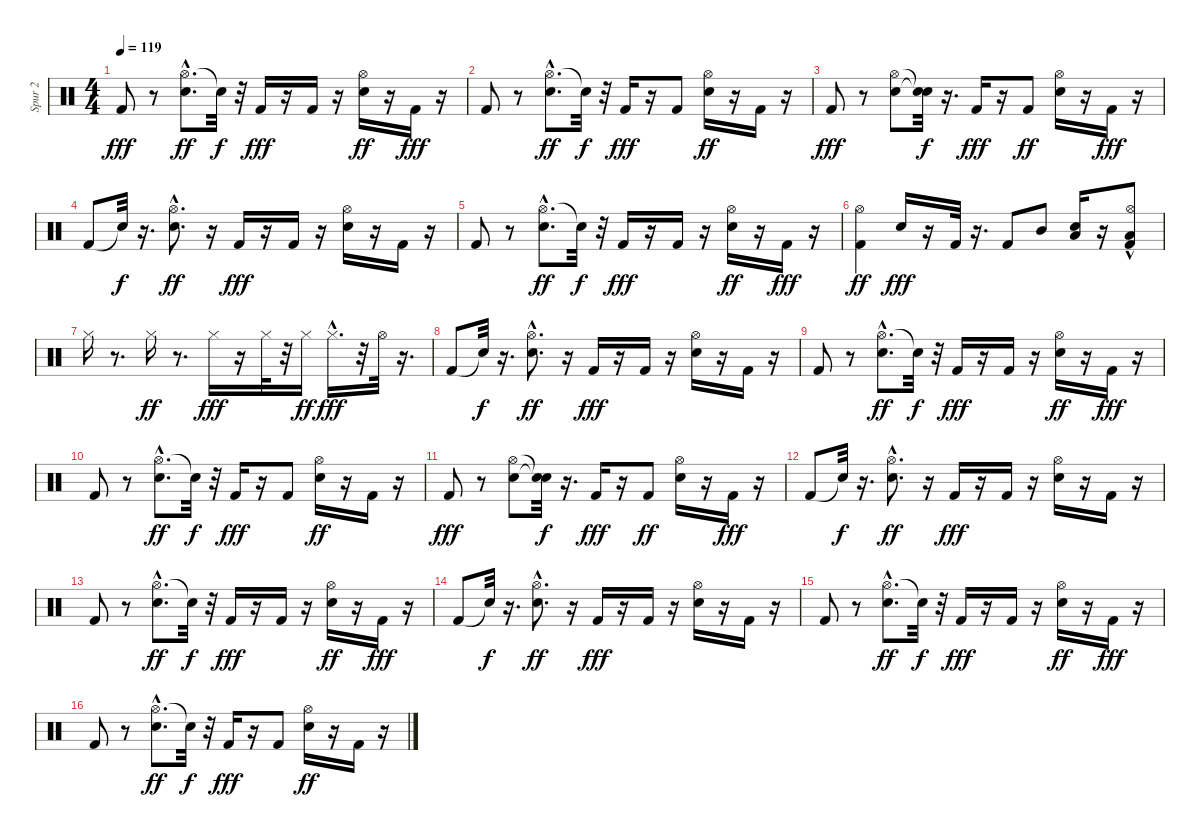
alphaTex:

\track ("Spur 2" "Spur 2") {instrument percussion}
\staff {score}
\articulation defaults
\ts (4 4)
\tempo 119
\clef neutral
\ks c "Kick (hit) 2".8{dy fff}
r.8 ("Hi-Hat (open)"{hac} "Electric Snare (hit)").8{d dy ff} "Snare (hit)"{t}.32{dy f} r.32 "Kick (hit) 2".16{dy fff} r.16 "Kick (hit) 2".16 r.16 ("Hi-Hat (open)" "Electric Snare (hit)").16{dy ff} r.16 "Kick (hit) 2".16{dy fff} r.16 |
"Kick (hit) 2".8 r.8 ("Hi-Hat (open)"{hac} "Electric Snare (hit)").8{d dy ff} "Snare (hit)"{t}.32{dy f} r.32 "Kick (hit) 2".16{dy fff} r.16 "Kick (hit) 2".8 ("Hi-Hat (open)" "Electric Snare (hit)").16{dy ff} r.16 "Kick (hit) 2".16 r.16 |
"Kick (hit) 2".8{dy fff} r.8 ("Hi-Hat (open)" "Electric Snare (hit)").8 ("Snare (hit)"{t} "Snare (hit)"{t}).32{dy f} r.16{d} "Kick (hit) 2".16{dy fff} r.16 "Kick (hit) 2".8{dy ff} ("Hi-Hat (open)" "Electric Snare (hit)").16 r.16 "Kick (hit) 2".16{dy fff} r.16 |
"Kick (hit) 2".8 "Snare (hit)"{t}.32{dy f} r.16{d} ("Hi-Hat (open)"{hac} "Electric Snare (hit)").8{d dy ff} r.16 "Kick (hit) 2".16{dy fff} r.16 "Kick (hit) 2".16 r.16 ("Hi-Hat (open)" "Electric Snare (hit)").16 r.16 "Kick (hit) 2".16 r.16 |
"Kick (hit) 2".8 r.8 ("Hi-Hat (open)"{hac} "Electric Snare (hit)").8{d dy ff} "Snare (hit)"{t}.32{dy f} r.32 "Kick (hit) 2".16{dy fff} r.16 "Kick (hit) 2".16 r.16 ("Hi-Hat (open)" "Electric Snare (hit)").16{dy ff} r.16 "Kick (hit) 2".16{dy fff} r.16 |
("Kick (hit) 2" "Hi-Hat (open)").4{dy ff} "Electric Snare (hit)".16{dy fff} r.16 "Kick (hit) 2".32 r.16{d} "Kick (hit) 2".8 "Mid Tom (hit)".8 ("Low Tom (hit)" "Electric Snare (hit)").16 r.16 ("Kick (hit) 2"{hac} "Hi-Hat (open)"{hac} "Low Tom (hit)").8 |
"Hi-Hat (closed)".16 r.8{d} "Hi-Hat (closed)".16{dy ff} r.8{d} "Hi-Hat (closed)".16{dy fff} r.16 "Hi-Hat (closed)".32 r.32 "Hi-Hat (closed)".16{dy ff} "Hi-Hat (closed)"{hac}.16{d dy fff} r.32 "Hi-Hat (open)".32 r.16{d} |
"Kick (hit) 2".8 "Snare (hit)"{t}.32{dy f} r.16{d} ("Hi-Hat (open)"{hac} "Electric Snare (hit)").8{d dy ff} r.16 "Kick (hit) 2".16{dy fff} r.16 "Kick (hit) 2".16 r.16 ("Hi-Hat (open)" "Electric Snare (hit)").16 r.16 "Kick (hit) 2".16 r.16 |
"Kick (hit) 2".8 r.8 ("Hi-Hat (open)"{hac} "Electric Snare (hit)").8{d dy ff} "Snare (hit)"{t}.32{dy f} r.32 "Kick (hit) 2".16{dy fff} r.16 "Kick (hit) 2".16 r.16 ("Hi-Hat (open)" "Electric Snare (hit)").16{dy ff} r.16 "Kick (hit) 2".16{dy fff} r.16 |
"Kick (hit) 2".8 r.8 ("Hi-Hat (open)"{hac} "Electric Snare (hit)").8{d dy ff} "Snare (hit)"{t}.32{dy f} r.32 "Kick (hit) 2".16{dy fff} r.16 "Kick (hit) 2".8 ("Hi-Hat (open)" "Electric Snare (hit)").16{dy ff} r.16 "Kick (hit) 2".16 r.16 |
"Kick (hit) 2".8{dy fff} r.8 ("Hi-Hat (open)" "Electric Snare (hit)").8 ("Snare (hit)"{t} "Snare (hit)"{t}).32{dy f} r.16{d} "Kick (hit) 2".16{dy fff} r.16 "Kick (hit) 2".8{dy ff} ("Hi-Hat (open)" "Electric Snare (hit)").16 r.16 "Kick (hit) 2".16{dy fff} r.16 |
"Kick (hit) 2".8 "Snare (hit)"{t}.32{dy f} r.16{d} ("Hi-Hat (open)"{hac} "Electric Snare (hit)").8{d dy ff} r.16 "Kick (hit) 2".16{dy fff} r.16 "Kick (hit) 2".16 r.16 ("Hi-Hat (open)" "Electric Snare (hit)").16 r.16 "Kick (hit) 2".16 r.16 |
"Kick (hit) 2".8 r.8 ("Hi-Hat (open)"{hac} "Electric Snare (hit)").8{d dy ff} "Snare (hit)"{t}.32{dy f} r.32 "Kick (hit) 2".16{dy fff} r.16 "Kick (hit) 2".16 r.16 ("Hi-Hat (open)" "Electric Snare (hit)").16{dy ff} r.16 "Kick (hit) 2".16{dy fff} r.16 |
"Kick (hit) 2".8 "Snare (hit)"{t}.32{dy f} r.16{d} ("Hi-Hat (open)"{hac} "Electric Snare (hit)").8{d dy ff} r.16 "Kick (hit) 2".16{dy fff} r.16 "Kick (hit) 2".16 r.16 ("Hi-Hat (open)" "Electric Snare (hit)").16 r.16 "Kick (hit) 2".16 r.16 |
"Kick (hit) 2".8 r.8 ("Hi-Hat (open)"{hac} "Electric Snare (hit)").8{d dy ff} "Snare (hit)"{t}.32{dy f} r.32 "Kick (hit) 2".16{dy fff} r.16 "Kick (hit) 2".16 r.16 ("Hi-Hat (open)" "Electric Snare (hit)").16{dy ff} r.16 "Kick (hit) 2".16{dy fff} r.16 |
"Kick (hit) 2".8 r.8 ("Hi-Hat (open)"{hac} "Electric Snare (hit)").8{d dy ff} "Snare (hit)"{t}.32{dy f} r.32 "Kick (hit) 2".16{dy fff} r.16 "Kick (hit) 2".8 ("Hi-Hat (open)" "Electric Snare (hit)").16{dy ff} r.16 "Kick (hit) 2".16 r.16
